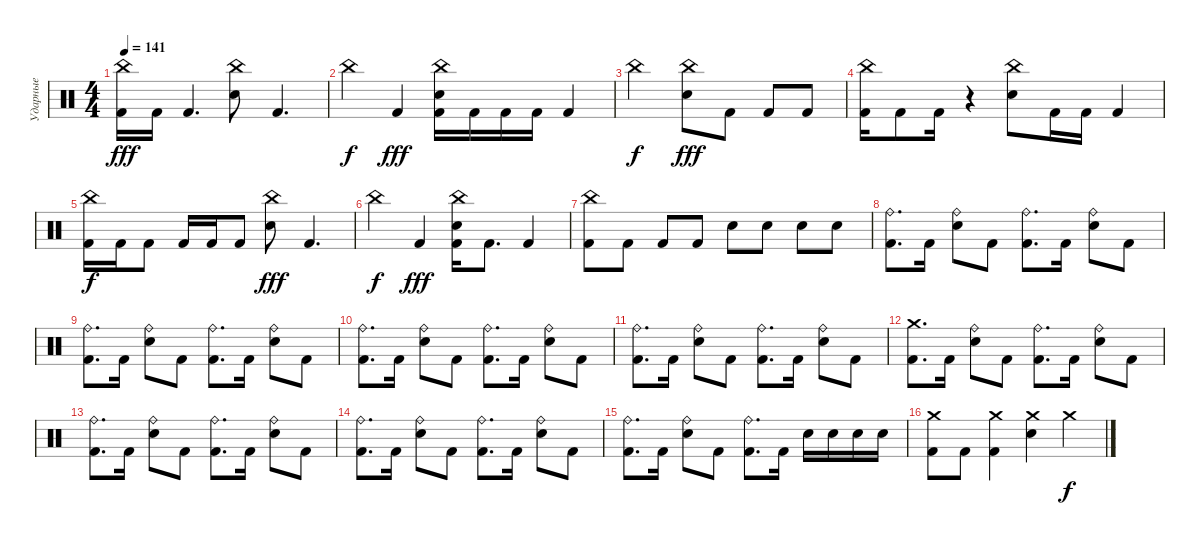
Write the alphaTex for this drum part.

\track ("Ударные" "Ударные") {instrument percussion}
\staff {score}
\articulation defaults
\ts (4 4)
\tempo 141
\clef neutral
\ks c
("China (hit)" "Kick (hit) 2").16{dy fff} "Kick (hit) 2".16 "Kick (hit) 2".4{d} ("China (hit)" "Electric Snare (hit)").8 "Kick (hit) 2".4{d} |
"China (hit)".4{dy f} "Kick (hit) 2".4{dy fff} ("China (hit)" "Electric Snare (hit)" "Kick (hit) 2").16 "Kick (hit) 2".16 "Kick (hit) 2".16 "Kick (hit) 2".16 "Kick (hit) 2".4 |
"China (hit)".2{dy f} ("China (hit)" "Electric Snare (hit)").8{dy fff} "Kick (hit) 2".8 "Kick (hit) 2".8 "Kick (hit) 2".8 |
("China (hit)" "Kick (hit) 2").16 "Kick (hit) 2".8 "Kick (hit) 2".16 r.4 ("China (hit)" "Electric Snare (hit)").8 "Kick (hit) 2".16 "Kick (hit) 2".16 "Kick (hit) 2".4 |
("China (hit)" "Kick (hit) 2").16{dy f} "Kick (hit) 2".16 "Kick (hit) 2".8 "Kick (hit) 2".16 "Kick (hit) 2".16 "Kick (hit) 2".8 ("China (hit)" "Electric Snare (hit)").8{dy fff} "Kick (hit) 2".4{d} |
"China (hit)".4{dy f} "Kick (hit) 2".4{dy fff} ("China (hit)" "Electric Snare (hit)" "Kick (hit) 2").16 "Kick (hit) 2".8{d} "Kick (hit) 2".4 |
("China (hit)" "Kick (hit) 2").8 "Kick (hit) 2".8 "Kick (hit) 2".8 "Kick (hit) 2".8 "Electric Snare (hit)".8 "Electric Snare (hit)".8 "Electric Snare (hit)".8 "Electric Snare (hit)".8 |
("Ride (bell)" "Kick (hit) 2").8{d} "Kick (hit) 2".16 ("Ride (bell)" "Electric Snare (hit)").8 "Kick (hit) 2".8 ("Ride (bell)" "Kick (hit) 2").8{d} "Kick (hit) 2".16 ("Ride (bell)" "Electric Snare (hit)").8 "Kick (hit) 2".8 |
("Ride (bell)" "Kick (hit) 2").8{d} "Kick (hit) 2".16 ("Ride (bell)" "Electric Snare (hit)").8 "Kick (hit) 2".8 ("Ride (bell)" "Kick (hit) 2").8{d} "Kick (hit) 2".16 ("Ride (bell)" "Electric Snare (hit)").8 "Kick (hit) 2".8 |
("Ride (bell)" "Kick (hit) 2").8{d} "Kick (hit) 2".16 ("Ride (bell)" "Electric Snare (hit)").8 "Kick (hit) 2".8 ("Ride (bell)" "Kick (hit) 2").8{d} "Kick (hit) 2".16 ("Ride (bell)" "Electric Snare (hit)").8 "Kick (hit) 2".8 |
("Ride (bell)" "Kick (hit) 2").8{d} "Kick (hit) 2".16 ("Ride (bell)" "Electric Snare (hit)").8 "Kick (hit) 2".8 ("Ride (bell)" "Kick (hit) 2").8{d} "Kick (hit) 2".16 ("Ride (bell)" "Electric Snare (hit)").8 "Kick (hit) 2".8 |
("Crash medium (hit)" "Kick (hit) 2").8{d} "Kick (hit) 2".16 ("Ride (bell)" "Electric Snare (hit)").8 "Kick (hit) 2".8 ("Ride (bell)" "Kick (hit) 2").8{d} "Kick (hit) 2".16 ("Ride (bell)" "Electric Snare (hit)").8 "Kick (hit) 2".8 |
("Ride (bell)" "Kick (hit) 2").8{d} "Kick (hit) 2".16 ("Ride (bell)" "Electric Snare (hit)").8 "Kick (hit) 2".8 ("Ride (bell)" "Kick (hit) 2").8{d} "Kick (hit) 2".16 ("Ride (bell)" "Electric Snare (hit)").8 "Kick (hit) 2".8 |
("Ride (bell)" "Kick (hit) 2").8{d} "Kick (hit) 2".16 ("Ride (bell)" "Electric Snare (hit)").8 "Kick (hit) 2".8 ("Ride (bell)" "Kick (hit) 2").8{d} "Kick (hit) 2".16 ("Ride (bell)" "Electric Snare (hit)").8 "Kick (hit) 2".8 |
("Ride (bell)" "Kick (hit) 2").8{d} "Kick (hit) 2".16 ("Ride (bell)" "Electric Snare (hit)").8 "Kick (hit) 2".8 ("Ride (bell)" "Kick (hit) 2").8{d} "Kick (hit) 2".16 "Electric Snare (hit)".16 "Electric Snare (hit)".16 "Electric Snare (hit)".16 "Electric Snare (hit)".16 |
("Crash medium (hit)" "Kick (hit) 2").8 "Kick (hit) 2".8 ("Crash medium (hit)" "Kick (hit) 2").4 ("Crash medium (hit)" "Electric Snare (hit)").4 "Crash medium (hit)".4{dy f}
